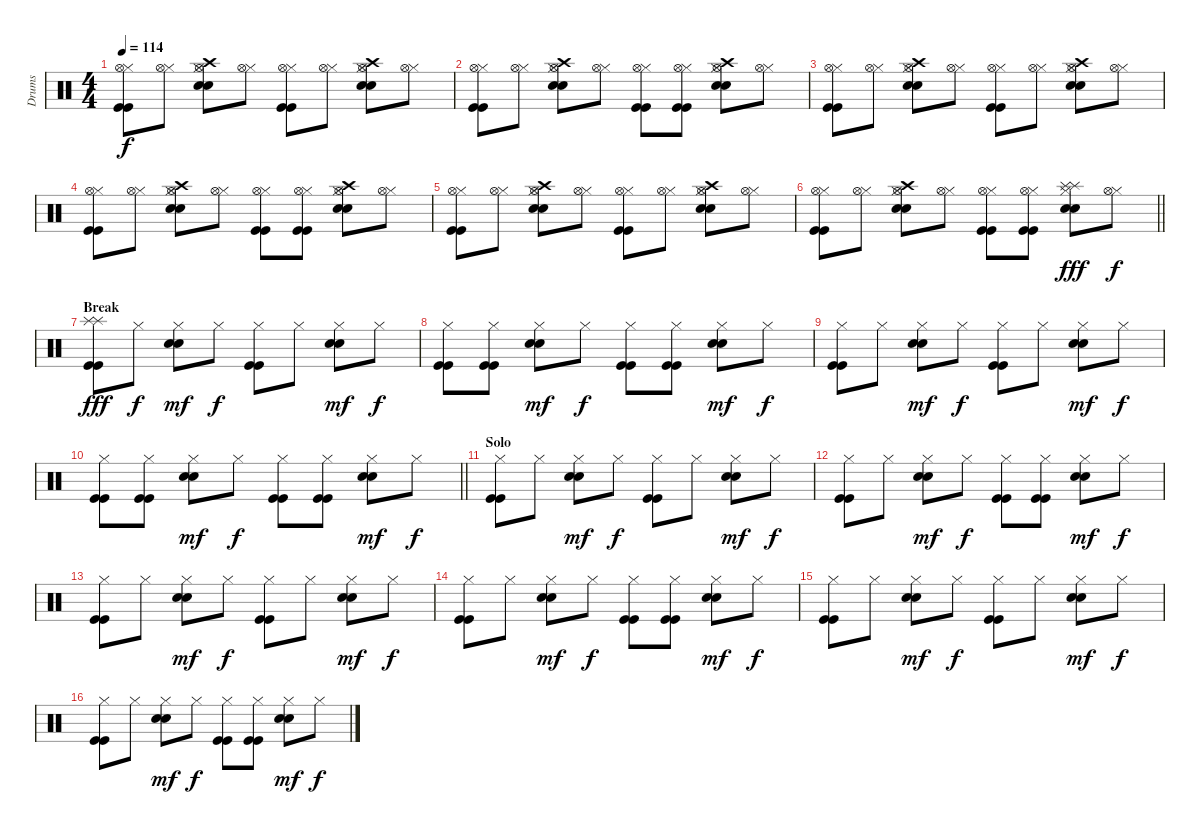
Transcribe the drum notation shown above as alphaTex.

\track ("Drums" "Drums") {instrument percussion}
\staff {score}
\articulation defaults
\ts (4 4)
\tempo 114
\clef neutral
\ks c
("Kick (hit)" "Kick (hit)" "Hi-Hat (closed)" "Hi-Hat (open)").8{dy f} ("Hi-Hat (closed)" "Hi-Hat (open)").8 ("Snare (hit) 2" "Snare (hit) 2" "Hi-Hat (closed)" "Hi-Hat (open)" "Crash high (hit)").8 ("Hi-Hat (closed)" "Hi-Hat (open)").8 ("Kick (hit)" "Kick (hit)" "Hi-Hat (closed)" "Hi-Hat (open)").8 ("Hi-Hat (closed)" "Hi-Hat (open)").8 ("Snare (hit) 2" "Snare (hit) 2" "Hi-Hat (closed)" "Hi-Hat (open)" "Crash high (hit)").8 ("Hi-Hat (closed)" "Hi-Hat (open)").8 |
("Kick (hit)" "Kick (hit)" "Hi-Hat (closed)" "Hi-Hat (open)").8 ("Hi-Hat (closed)" "Hi-Hat (open)").8 ("Snare (hit) 2" "Snare (hit) 2" "Hi-Hat (closed)" "Hi-Hat (open)" "Crash high (hit)").8 ("Hi-Hat (closed)" "Hi-Hat (open)").8 ("Kick (hit)" "Kick (hit)" "Hi-Hat (closed)" "Hi-Hat (open)").8 ("Kick (hit)" "Kick (hit)" "Hi-Hat (closed)" "Hi-Hat (open)").8 ("Snare (hit) 2" "Snare (hit) 2" "Hi-Hat (closed)" "Hi-Hat (open)" "Crash high (hit)").8 ("Hi-Hat (closed)" "Hi-Hat (open)").8 |
("Kick (hit)" "Kick (hit)" "Hi-Hat (closed)" "Hi-Hat (open)").8 ("Hi-Hat (closed)" "Hi-Hat (open)").8 ("Snare (hit) 2" "Snare (hit) 2" "Hi-Hat (closed)" "Hi-Hat (open)" "Crash high (hit)").8 ("Hi-Hat (closed)" "Hi-Hat (open)").8 ("Kick (hit)" "Kick (hit)" "Hi-Hat (closed)" "Hi-Hat (open)").8 ("Hi-Hat (closed)" "Hi-Hat (open)").8 ("Snare (hit) 2" "Snare (hit) 2" "Hi-Hat (closed)" "Hi-Hat (open)" "Crash high (hit)").8 ("Hi-Hat (closed)" "Hi-Hat (open)").8 |
("Kick (hit)" "Kick (hit)" "Hi-Hat (closed)" "Hi-Hat (open)").8 ("Hi-Hat (closed)" "Hi-Hat (open)").8 ("Snare (hit) 2" "Snare (hit) 2" "Hi-Hat (closed)" "Hi-Hat (open)" "Crash high (hit)").8 ("Hi-Hat (closed)" "Hi-Hat (open)").8 ("Kick (hit)" "Kick (hit)" "Hi-Hat (closed)" "Hi-Hat (open)").8 ("Kick (hit)" "Kick (hit)" "Hi-Hat (closed)" "Hi-Hat (open)").8 ("Snare (hit) 2" "Snare (hit) 2" "Hi-Hat (closed)" "Hi-Hat (open)" "Crash high (hit)").8 ("Hi-Hat (closed)" "Hi-Hat (open)").8 |
("Kick (hit)" "Kick (hit)" "Hi-Hat (closed)" "Hi-Hat (open)").8 ("Hi-Hat (closed)" "Hi-Hat (open)").8 ("Snare (hit) 2" "Snare (hit) 2" "Hi-Hat (closed)" "Hi-Hat (open)" "Crash high (hit)").8 ("Hi-Hat (closed)" "Hi-Hat (open)").8 ("Kick (hit)" "Kick (hit)" "Hi-Hat (closed)" "Hi-Hat (open)").8 ("Hi-Hat (closed)" "Hi-Hat (open)").8 ("Snare (hit) 2" "Snare (hit) 2" "Hi-Hat (closed)" "Hi-Hat (open)" "Crash high (hit)").8 ("Hi-Hat (closed)" "Hi-Hat (open)").8 |
\barLineRight lightlight
("Kick (hit)" "Kick (hit)" "Hi-Hat (closed)" "Hi-Hat (open)").8 ("Hi-Hat (closed)" "Hi-Hat (open)").8 ("Snare (hit) 2" "Snare (hit) 2" "Hi-Hat (closed)" "Hi-Hat (open)" "Crash high (hit)").8 ("Hi-Hat (closed)" "Hi-Hat (open)").8 ("Kick (hit)" "Kick (hit)" "Hi-Hat (closed)" "Hi-Hat (open)").8 ("Kick (hit)" "Kick (hit)" "Hi-Hat (closed)" "Hi-Hat (open)").8 ("Snare (hit) 2" "Snare (hit) 2" "Hi-Hat (closed)" "Splash (hit)" "Splash (hit)").8{dy fff} ("Hi-Hat (closed)" "Hi-Hat (open)").8{dy f} |
\section ("" "Break")
("Kick (hit)" "Kick (hit)" "Splash (hit)" "Splash (hit)").8{dy fff} "Hi-Hat (closed)".8{dy f} ("Snare (hit) 2" "Snare (hit) 2" "Hi-Hat (closed)").8{dy mf} "Hi-Hat (closed)".8{dy f} ("Kick (hit)" "Kick (hit)" "Hi-Hat (closed)").8 "Hi-Hat (closed)".8 ("Snare (hit) 2" "Snare (hit) 2" "Hi-Hat (closed)").8{dy mf} "Hi-Hat (closed)".8{dy f} |
("Kick (hit)" "Kick (hit)" "Hi-Hat (closed)").8 ("Kick (hit)" "Kick (hit)" "Hi-Hat (closed)").8 ("Snare (hit) 2" "Snare (hit) 2" "Hi-Hat (closed)").8{dy mf} "Hi-Hat (closed)".8{dy f} ("Kick (hit)" "Kick (hit)" "Hi-Hat (closed)").8 ("Kick (hit)" "Kick (hit)" "Hi-Hat (closed)").8 ("Snare (hit) 2" "Snare (hit) 2" "Hi-Hat (closed)").8{dy mf} "Hi-Hat (closed)".8{dy f} |
("Kick (hit)" "Kick (hit)" "Hi-Hat (closed)").8 "Hi-Hat (closed)".8 ("Snare (hit) 2" "Snare (hit) 2" "Hi-Hat (closed)").8{dy mf} "Hi-Hat (closed)".8{dy f} ("Kick (hit)" "Kick (hit)" "Hi-Hat (closed)").8 "Hi-Hat (closed)".8 ("Snare (hit) 2" "Snare (hit) 2" "Hi-Hat (closed)").8{dy mf} "Hi-Hat (closed)".8{dy f} |
\barLineRight lightlight
("Kick (hit)" "Kick (hit)" "Hi-Hat (closed)").8 ("Kick (hit)" "Kick (hit)" "Hi-Hat (closed)").8 ("Snare (hit) 2" "Snare (hit) 2" "Hi-Hat (closed)").8{dy mf} "Hi-Hat (closed)".8{dy f} ("Kick (hit)" "Kick (hit)" "Hi-Hat (closed)").8 ("Kick (hit)" "Kick (hit)" "Hi-Hat (closed)").8 ("Snare (hit) 2" "Snare (hit) 2" "Hi-Hat (closed)").8{dy mf} "Hi-Hat (closed)".8{dy f} |
\section ("" "Solo")
("Kick (hit)" "Kick (hit)" "Hi-Hat (closed)").8 "Hi-Hat (closed)".8 ("Snare (hit) 2" "Snare (hit) 2" "Hi-Hat (closed)").8{dy mf} "Hi-Hat (closed)".8{dy f} ("Kick (hit)" "Kick (hit)" "Hi-Hat (closed)").8 "Hi-Hat (closed)".8 ("Snare (hit) 2" "Snare (hit) 2" "Hi-Hat (closed)").8{dy mf} "Hi-Hat (closed)".8{dy f} |
("Kick (hit)" "Kick (hit)" "Hi-Hat (closed)").8 "Hi-Hat (closed)".8 ("Snare (hit) 2" "Snare (hit) 2" "Hi-Hat (closed)").8{dy mf} "Hi-Hat (closed)".8{dy f} ("Kick (hit)" "Kick (hit)" "Hi-Hat (closed)").8 ("Kick (hit)" "Kick (hit)" "Hi-Hat (closed)").8 ("Snare (hit) 2" "Snare (hit) 2" "Hi-Hat (closed)").8{dy mf} "Hi-Hat (closed)".8{dy f} |
("Kick (hit)" "Kick (hit)" "Hi-Hat (closed)").8 "Hi-Hat (closed)".8 ("Snare (hit) 2" "Snare (hit) 2" "Hi-Hat (closed)").8{dy mf} "Hi-Hat (closed)".8{dy f} ("Kick (hit)" "Kick (hit)" "Hi-Hat (closed)").8 "Hi-Hat (closed)".8 ("Snare (hit) 2" "Snare (hit) 2" "Hi-Hat (closed)").8{dy mf} "Hi-Hat (closed)".8{dy f} |
("Kick (hit)" "Kick (hit)" "Hi-Hat (closed)").8 "Hi-Hat (closed)".8 ("Snare (hit) 2" "Snare (hit) 2" "Hi-Hat (closed)").8{dy mf} "Hi-Hat (closed)".8{dy f} ("Kick (hit)" "Kick (hit)" "Hi-Hat (closed)").8 ("Kick (hit)" "Kick (hit)" "Hi-Hat (closed)").8 ("Snare (hit) 2" "Snare (hit) 2" "Hi-Hat (closed)").8{dy mf} "Hi-Hat (closed)".8{dy f} |
("Kick (hit)" "Kick (hit)" "Hi-Hat (closed)").8 "Hi-Hat (closed)".8 ("Snare (hit) 2" "Snare (hit) 2" "Hi-Hat (closed)").8{dy mf} "Hi-Hat (closed)".8{dy f} ("Kick (hit)" "Kick (hit)" "Hi-Hat (closed)").8 "Hi-Hat (closed)".8 ("Snare (hit) 2" "Snare (hit) 2" "Hi-Hat (closed)").8{dy mf} "Hi-Hat (closed)".8{dy f} |
("Kick (hit)" "Kick (hit)" "Hi-Hat (closed)").8 "Hi-Hat (closed)".8 ("Snare (hit) 2" "Snare (hit) 2" "Hi-Hat (closed)").8{dy mf} "Hi-Hat (closed)".8{dy f} ("Kick (hit)" "Kick (hit)" "Hi-Hat (closed)").8 ("Kick (hit)" "Kick (hit)" "Hi-Hat (closed)").8 ("Snare (hit) 2" "Snare (hit) 2" "Hi-Hat (closed)").8{dy mf} "Hi-Hat (closed)".8{dy f}
